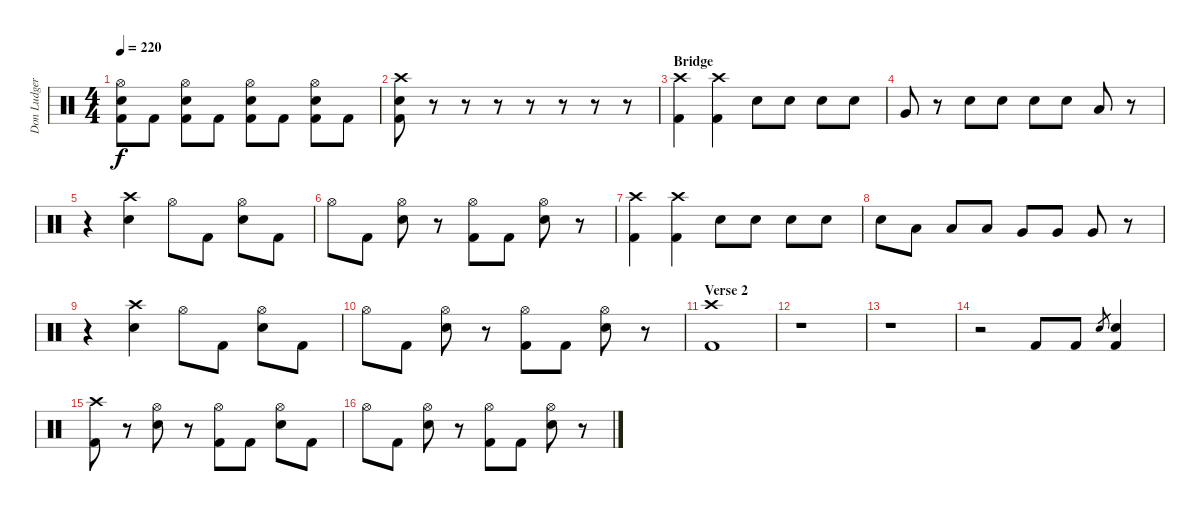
\track ("Don Ludger" "Don Ludger") {instrument percussion}
\staff {score}
\articulation defaults
\ts (4 4)
\tempo 220
\clef neutral
\ks c
("Hi-Hat (open)" "Electric Snare (hit)" "Kick (hit) 2").8{dy f} "Kick (hit) 2".8 ("Hi-Hat (open)" "Electric Snare (hit)" "Kick (hit) 2").8 "Kick (hit) 2".8 ("Hi-Hat (open)" "Electric Snare (hit)" "Kick (hit) 2").8 "Kick (hit) 2".8 ("Hi-Hat (open)" "Electric Snare (hit)" "Kick (hit) 2").8 "Kick (hit) 2".8 |
("Crash high (hit)" "Electric Snare (hit)" "Kick (hit) 2").8 r.8 r.8 r.8 r.8 r.8 r.8 r.8 |
\section ("" "Bridge")
("Crash high (hit)" "Kick (hit) 2").4 ("Crash high (hit)" "Kick (hit) 2").4 "Electric Snare (hit)".8 "Electric Snare (hit)".8 "Electric Snare (hit)".8 "Electric Snare (hit)".8 |
"Very Low Tom (hit)".8 r.8 "Electric Snare (hit)".8 "Electric Snare (hit)".8 "Electric Snare (hit)".8 "Electric Snare (hit)".8 "Low Tom (hit)".8 r.8 |
r.4 ("Crash high (hit)" "Electric Snare (hit)").4 "Hi-Hat (open)".8 "Kick (hit) 2".8 ("Hi-Hat (open)" "Electric Snare (hit)").8 "Kick (hit) 2".8 |
"Hi-Hat (open)".8 "Kick (hit) 2".8 ("Hi-Hat (open)" "Electric Snare (hit)").8 r.8 ("Hi-Hat (open)" "Kick (hit) 2").8 "Kick (hit) 2".8 ("Hi-Hat (open)" "Electric Snare (hit)").8 r.8 |
("Crash high (hit)" "Kick (hit) 2").4 ("Crash high (hit)" "Kick (hit) 2").4 "Electric Snare (hit)".8 "Electric Snare (hit)".8 "Electric Snare (hit)".8 "Electric Snare (hit)".8 |
"Electric Snare (hit)".8 "Low Tom (hit)".8 "Low Tom (hit)".8 "Low Tom (hit)".8 "Very Low Tom (hit)".8 "Very Low Tom (hit)".8 "Very Low Tom (hit)".8 r.8 |
r.4 ("Crash high (hit)" "Electric Snare (hit)").4 "Hi-Hat (open)".8 "Kick (hit) 2".8 ("Hi-Hat (open)" "Electric Snare (hit)").8 "Kick (hit) 2".8 |
"Hi-Hat (open)".8 "Kick (hit) 2".8 ("Hi-Hat (open)" "Electric Snare (hit)").8 r.8 ("Hi-Hat (open)" "Kick (hit) 2").8 "Kick (hit) 2".8 ("Hi-Hat (open)" "Electric Snare (hit)").8 r.8 |
\section ("" "Verse 2")
("Crash high (hit)" "Kick (hit) 2").1 |
r.1 |
r.1 |
r.2 "Kick (hit) 2".8 "Kick (hit) 2".8 "Electric Snare (hit)".8{gr} ("Electric Snare (hit)" "Kick (hit) 2").4 |
("Crash high (hit)" "Kick (hit) 2").8 r.8 ("Hi-Hat (open)" "Electric Snare (hit)").8 r.8 ("Hi-Hat (open)" "Kick (hit) 2").8 "Kick (hit) 2".8 ("Hi-Hat (open)" "Electric Snare (hit)").8 "Kick (hit) 2".8 |
"Hi-Hat (open)".8 "Kick (hit) 2".8 ("Hi-Hat (open)" "Electric Snare (hit)").8 r.8 ("Hi-Hat (open)" "Kick (hit) 2").8 "Kick (hit) 2".8 ("Hi-Hat (open)" "Electric Snare (hit)").8 r.8
